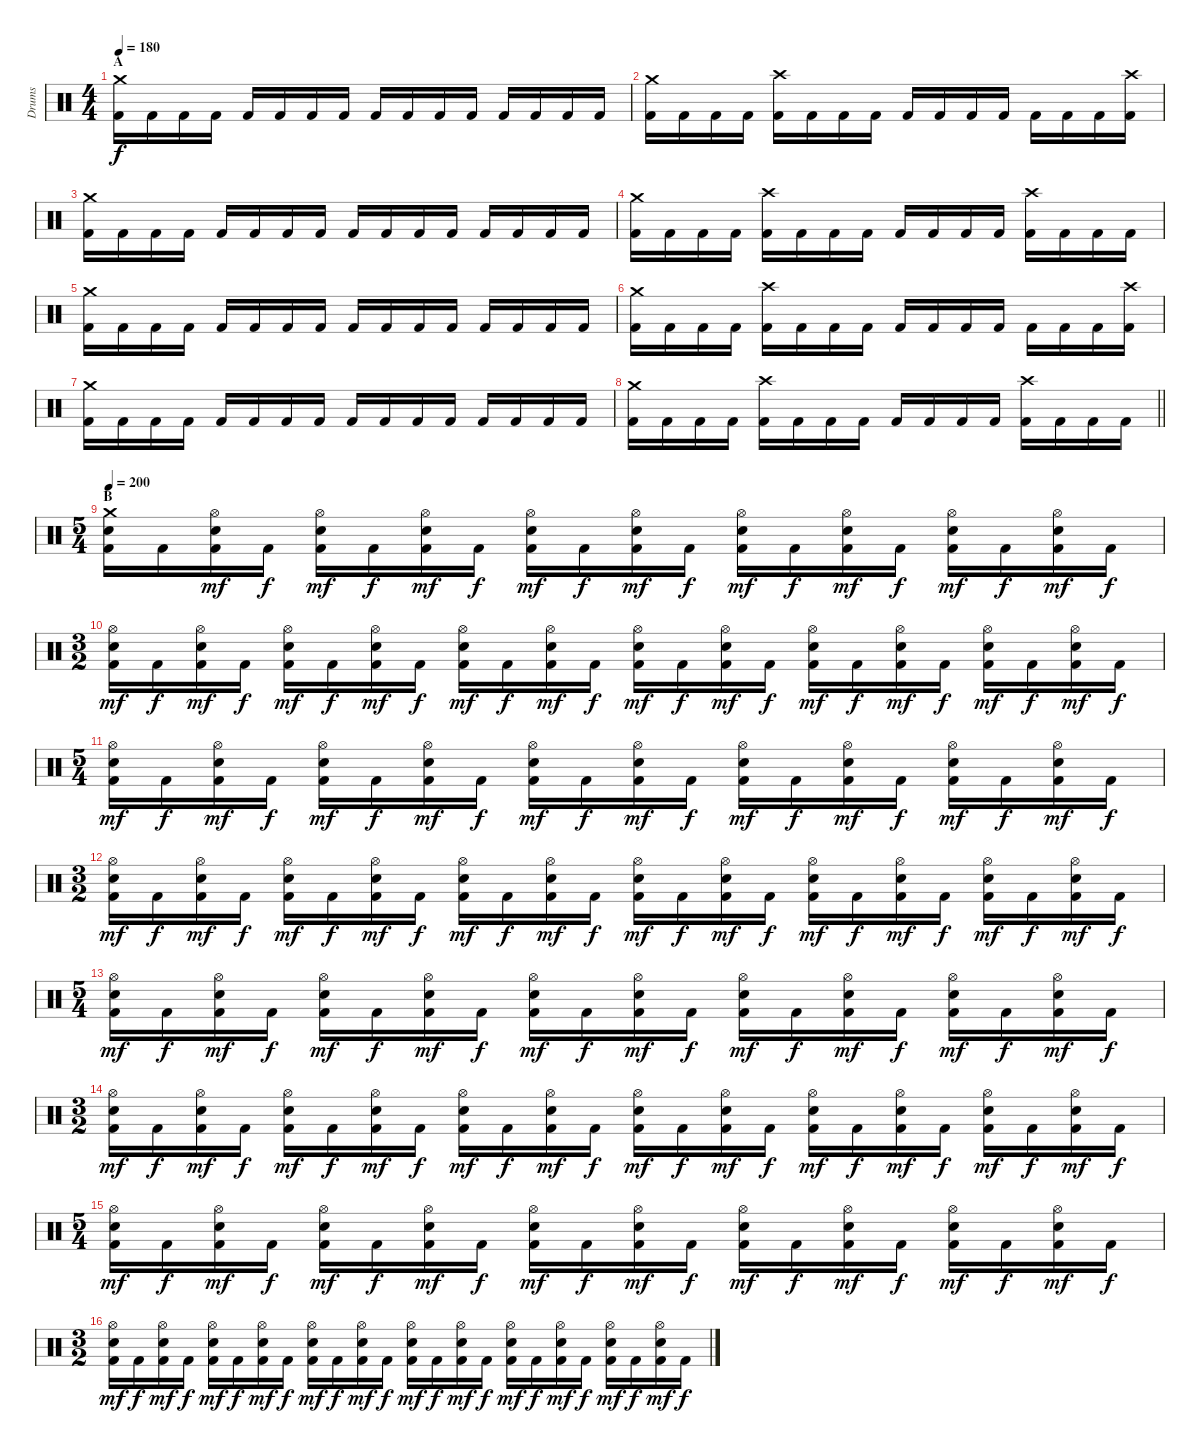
\track ("Drums" "Drums") {instrument percussion}
\staff {score}
\articulation defaults
\ts (4 4)
\section ("" "A")
\tempo 180
\clef neutral
\ks c
("Crash medium (hit)" "Kick (hit) 2").16{dy f} "Kick (hit) 2".16 "Kick (hit) 2".16 "Kick (hit) 2".16 "Kick (hit) 2".16 "Kick (hit) 2".16 "Kick (hit) 2".16 "Kick (hit) 2".16 "Kick (hit) 2".16 "Kick (hit) 2".16 "Kick (hit) 2".16 "Kick (hit) 2".16 "Kick (hit) 2".16 "Kick (hit) 2".16 "Kick (hit) 2".16 "Kick (hit) 2".16 |
("Crash medium (hit)" "Kick (hit) 2").16 "Kick (hit) 2".16 "Kick (hit) 2".16 "Kick (hit) 2".16 ("Crash high (hit)" "Kick (hit) 2").16 "Kick (hit) 2".16 "Kick (hit) 2".16 "Kick (hit) 2".16 "Kick (hit) 2".16 "Kick (hit) 2".16 "Kick (hit) 2".16 "Kick (hit) 2".16 "Kick (hit) 2".16 "Kick (hit) 2".16 "Kick (hit) 2".16 ("Crash high (hit)" "Kick (hit) 2").16 |
("Crash medium (hit)" "Kick (hit) 2").16 "Kick (hit) 2".16 "Kick (hit) 2".16 "Kick (hit) 2".16 "Kick (hit) 2".16 "Kick (hit) 2".16 "Kick (hit) 2".16 "Kick (hit) 2".16 "Kick (hit) 2".16 "Kick (hit) 2".16 "Kick (hit) 2".16 "Kick (hit) 2".16 "Kick (hit) 2".16 "Kick (hit) 2".16 "Kick (hit) 2".16 "Kick (hit) 2".16 |
("Crash medium (hit)" "Kick (hit) 2").16 "Kick (hit) 2".16 "Kick (hit) 2".16 "Kick (hit) 2".16 ("Crash high (hit)" "Kick (hit) 2").16 "Kick (hit) 2".16 "Kick (hit) 2".16 "Kick (hit) 2".16 "Kick (hit) 2".16 "Kick (hit) 2".16 "Kick (hit) 2".16 "Kick (hit) 2".16 ("Crash high (hit)" "Kick (hit) 2").16 "Kick (hit) 2".16 "Kick (hit) 2".16 "Kick (hit) 2".16 |
("Crash medium (hit)" "Kick (hit) 2").16 "Kick (hit) 2".16 "Kick (hit) 2".16 "Kick (hit) 2".16 "Kick (hit) 2".16 "Kick (hit) 2".16 "Kick (hit) 2".16 "Kick (hit) 2".16 "Kick (hit) 2".16 "Kick (hit) 2".16 "Kick (hit) 2".16 "Kick (hit) 2".16 "Kick (hit) 2".16 "Kick (hit) 2".16 "Kick (hit) 2".16 "Kick (hit) 2".16 |
("Crash medium (hit)" "Kick (hit) 2").16 "Kick (hit) 2".16 "Kick (hit) 2".16 "Kick (hit) 2".16 ("Crash high (hit)" "Kick (hit) 2").16 "Kick (hit) 2".16 "Kick (hit) 2".16 "Kick (hit) 2".16 "Kick (hit) 2".16 "Kick (hit) 2".16 "Kick (hit) 2".16 "Kick (hit) 2".16 "Kick (hit) 2".16 "Kick (hit) 2".16 "Kick (hit) 2".16 ("Crash high (hit)" "Kick (hit) 2").16 |
("Crash medium (hit)" "Kick (hit) 2").16 "Kick (hit) 2".16 "Kick (hit) 2".16 "Kick (hit) 2".16 "Kick (hit) 2".16 "Kick (hit) 2".16 "Kick (hit) 2".16 "Kick (hit) 2".16 "Kick (hit) 2".16 "Kick (hit) 2".16 "Kick (hit) 2".16 "Kick (hit) 2".16 "Kick (hit) 2".16 "Kick (hit) 2".16 "Kick (hit) 2".16 "Kick (hit) 2".16 |
\barLineRight lightlight
("Crash medium (hit)" "Kick (hit) 2").16 "Kick (hit) 2".16 "Kick (hit) 2".16 "Kick (hit) 2".16 ("Crash high (hit)" "Kick (hit) 2").16 "Kick (hit) 2".16 "Kick (hit) 2".16 "Kick (hit) 2".16 "Kick (hit) 2".16 "Kick (hit) 2".16 "Kick (hit) 2".16 "Kick (hit) 2".16 ("Crash high (hit)" "Kick (hit) 2").16 "Kick (hit) 2".16 "Kick (hit) 2".16 "Kick (hit) 2".16 |
\ts (5 4)
\section ("" "B")
\tempo 200
("Crash medium (hit)" "Electric Snare (hit)" "Kick (hit) 2").16 "Kick (hit) 2".16 ("Hi-Hat (open)" "Electric Snare (hit)" "Kick (hit) 2").16{dy mf} "Kick (hit) 2".16{dy f} ("Hi-Hat (open)" "Electric Snare (hit)" "Kick (hit) 2").16{dy mf} "Kick (hit) 2".16{dy f} ("Hi-Hat (open)" "Electric Snare (hit)" "Kick (hit) 2").16{dy mf} "Kick (hit) 2".16{dy f} ("Hi-Hat (open)" "Electric Snare (hit)" "Kick (hit) 2").16{dy mf} "Kick (hit) 2".16{dy f} ("Hi-Hat (open)" "Electric Snare (hit)" "Kick (hit) 2").16{dy mf} "Kick (hit) 2".16{dy f} ("Hi-Hat (open)" "Electric Snare (hit)" "Kick (hit) 2").16{dy mf} "Kick (hit) 2".16{dy f} ("Hi-Hat (open)" "Electric Snare (hit)" "Kick (hit) 2").16{dy mf} "Kick (hit) 2".16{dy f} ("Hi-Hat (open)" "Electric Snare (hit)" "Kick (hit) 2").16{dy mf} "Kick (hit) 2".16{dy f} ("Hi-Hat (open)" "Electric Snare (hit)" "Kick (hit) 2").16{dy mf} "Kick (hit) 2".16{dy f} |
\ts (3 2)
("Hi-Hat (open)" "Electric Snare (hit)" "Kick (hit) 2").16{dy mf} "Kick (hit) 2".16{dy f} ("Hi-Hat (open)" "Electric Snare (hit)" "Kick (hit) 2").16{dy mf} "Kick (hit) 2".16{dy f} ("Hi-Hat (open)" "Electric Snare (hit)" "Kick (hit) 2").16{dy mf} "Kick (hit) 2".16{dy f} ("Hi-Hat (open)" "Electric Snare (hit)" "Kick (hit) 2").16{dy mf} "Kick (hit) 2".16{dy f} ("Hi-Hat (open)" "Electric Snare (hit)" "Kick (hit) 2").16{dy mf} "Kick (hit) 2".16{dy f} ("Hi-Hat (open)" "Electric Snare (hit)" "Kick (hit) 2").16{dy mf} "Kick (hit) 2".16{dy f} ("Hi-Hat (open)" "Electric Snare (hit)" "Kick (hit) 2").16{dy mf} "Kick (hit) 2".16{dy f} ("Hi-Hat (open)" "Electric Snare (hit)" "Kick (hit) 2").16{dy mf} "Kick (hit) 2".16{dy f} ("Hi-Hat (open)" "Electric Snare (hit)" "Kick (hit) 2").16{dy mf} "Kick (hit) 2".16{dy f} ("Hi-Hat (open)" "Electric Snare (hit)" "Kick (hit) 2").16{dy mf} "Kick (hit) 2".16{dy f} ("Hi-Hat (open)" "Electric Snare (hit)" "Kick (hit) 2").16{dy mf} "Kick (hit) 2".16{dy f} ("Hi-Hat (open)" "Electric Snare (hit)" "Kick (hit) 2").16{dy mf} "Kick (hit) 2".16{dy f} |
\ts (5 4)
("Hi-Hat (open)" "Electric Snare (hit)" "Kick (hit) 2").16{dy mf} "Kick (hit) 2".16{dy f} ("Hi-Hat (open)" "Electric Snare (hit)" "Kick (hit) 2").16{dy mf} "Kick (hit) 2".16{dy f} ("Hi-Hat (open)" "Electric Snare (hit)" "Kick (hit) 2").16{dy mf} "Kick (hit) 2".16{dy f} ("Hi-Hat (open)" "Electric Snare (hit)" "Kick (hit) 2").16{dy mf} "Kick (hit) 2".16{dy f} ("Hi-Hat (open)" "Electric Snare (hit)" "Kick (hit) 2").16{dy mf} "Kick (hit) 2".16{dy f} ("Hi-Hat (open)" "Electric Snare (hit)" "Kick (hit) 2").16{dy mf} "Kick (hit) 2".16{dy f} ("Hi-Hat (open)" "Electric Snare (hit)" "Kick (hit) 2").16{dy mf} "Kick (hit) 2".16{dy f} ("Hi-Hat (open)" "Electric Snare (hit)" "Kick (hit) 2").16{dy mf} "Kick (hit) 2".16{dy f} ("Hi-Hat (open)" "Electric Snare (hit)" "Kick (hit) 2").16{dy mf} "Kick (hit) 2".16{dy f} ("Hi-Hat (open)" "Electric Snare (hit)" "Kick (hit) 2").16{dy mf} "Kick (hit) 2".16{dy f} |
\ts (3 2)
("Hi-Hat (open)" "Electric Snare (hit)" "Kick (hit) 2").16{dy mf} "Kick (hit) 2".16{dy f} ("Hi-Hat (open)" "Electric Snare (hit)" "Kick (hit) 2").16{dy mf} "Kick (hit) 2".16{dy f} ("Hi-Hat (open)" "Electric Snare (hit)" "Kick (hit) 2").16{dy mf} "Kick (hit) 2".16{dy f} ("Hi-Hat (open)" "Electric Snare (hit)" "Kick (hit) 2").16{dy mf} "Kick (hit) 2".16{dy f} ("Hi-Hat (open)" "Electric Snare (hit)" "Kick (hit) 2").16{dy mf} "Kick (hit) 2".16{dy f} ("Hi-Hat (open)" "Electric Snare (hit)" "Kick (hit) 2").16{dy mf} "Kick (hit) 2".16{dy f} ("Hi-Hat (open)" "Electric Snare (hit)" "Kick (hit) 2").16{dy mf} "Kick (hit) 2".16{dy f} ("Hi-Hat (open)" "Electric Snare (hit)" "Kick (hit) 2").16{dy mf} "Kick (hit) 2".16{dy f} ("Hi-Hat (open)" "Electric Snare (hit)" "Kick (hit) 2").16{dy mf} "Kick (hit) 2".16{dy f} ("Hi-Hat (open)" "Electric Snare (hit)" "Kick (hit) 2").16{dy mf} "Kick (hit) 2".16{dy f} ("Hi-Hat (open)" "Electric Snare (hit)" "Kick (hit) 2").16{dy mf} "Kick (hit) 2".16{dy f} ("Hi-Hat (open)" "Electric Snare (hit)" "Kick (hit) 2").16{dy mf} "Kick (hit) 2".16{dy f} |
\ts (5 4)
("Hi-Hat (open)" "Electric Snare (hit)" "Kick (hit) 2").16{dy mf} "Kick (hit) 2".16{dy f} ("Hi-Hat (open)" "Electric Snare (hit)" "Kick (hit) 2").16{dy mf} "Kick (hit) 2".16{dy f} ("Hi-Hat (open)" "Electric Snare (hit)" "Kick (hit) 2").16{dy mf} "Kick (hit) 2".16{dy f} ("Hi-Hat (open)" "Electric Snare (hit)" "Kick (hit) 2").16{dy mf} "Kick (hit) 2".16{dy f} ("Hi-Hat (open)" "Electric Snare (hit)" "Kick (hit) 2").16{dy mf} "Kick (hit) 2".16{dy f} ("Hi-Hat (open)" "Electric Snare (hit)" "Kick (hit) 2").16{dy mf} "Kick (hit) 2".16{dy f} ("Hi-Hat (open)" "Electric Snare (hit)" "Kick (hit) 2").16{dy mf} "Kick (hit) 2".16{dy f} ("Hi-Hat (open)" "Electric Snare (hit)" "Kick (hit) 2").16{dy mf} "Kick (hit) 2".16{dy f} ("Hi-Hat (open)" "Electric Snare (hit)" "Kick (hit) 2").16{dy mf} "Kick (hit) 2".16{dy f} ("Hi-Hat (open)" "Electric Snare (hit)" "Kick (hit) 2").16{dy mf} "Kick (hit) 2".16{dy f} |
\ts (3 2)
("Hi-Hat (open)" "Electric Snare (hit)" "Kick (hit) 2").16{dy mf} "Kick (hit) 2".16{dy f} ("Hi-Hat (open)" "Electric Snare (hit)" "Kick (hit) 2").16{dy mf} "Kick (hit) 2".16{dy f} ("Hi-Hat (open)" "Electric Snare (hit)" "Kick (hit) 2").16{dy mf} "Kick (hit) 2".16{dy f} ("Hi-Hat (open)" "Electric Snare (hit)" "Kick (hit) 2").16{dy mf} "Kick (hit) 2".16{dy f} ("Hi-Hat (open)" "Electric Snare (hit)" "Kick (hit) 2").16{dy mf} "Kick (hit) 2".16{dy f} ("Hi-Hat (open)" "Electric Snare (hit)" "Kick (hit) 2").16{dy mf} "Kick (hit) 2".16{dy f} ("Hi-Hat (open)" "Electric Snare (hit)" "Kick (hit) 2").16{dy mf} "Kick (hit) 2".16{dy f} ("Hi-Hat (open)" "Electric Snare (hit)" "Kick (hit) 2").16{dy mf} "Kick (hit) 2".16{dy f} ("Hi-Hat (open)" "Electric Snare (hit)" "Kick (hit) 2").16{dy mf} "Kick (hit) 2".16{dy f} ("Hi-Hat (open)" "Electric Snare (hit)" "Kick (hit) 2").16{dy mf} "Kick (hit) 2".16{dy f} ("Hi-Hat (open)" "Electric Snare (hit)" "Kick (hit) 2").16{dy mf} "Kick (hit) 2".16{dy f} ("Hi-Hat (open)" "Electric Snare (hit)" "Kick (hit) 2").16{dy mf} "Kick (hit) 2".16{dy f} |
\ts (5 4)
("Hi-Hat (open)" "Electric Snare (hit)" "Kick (hit) 2").16{dy mf} "Kick (hit) 2".16{dy f} ("Hi-Hat (open)" "Electric Snare (hit)" "Kick (hit) 2").16{dy mf} "Kick (hit) 2".16{dy f} ("Hi-Hat (open)" "Electric Snare (hit)" "Kick (hit) 2").16{dy mf} "Kick (hit) 2".16{dy f} ("Hi-Hat (open)" "Electric Snare (hit)" "Kick (hit) 2").16{dy mf} "Kick (hit) 2".16{dy f} ("Hi-Hat (open)" "Electric Snare (hit)" "Kick (hit) 2").16{dy mf} "Kick (hit) 2".16{dy f} ("Hi-Hat (open)" "Electric Snare (hit)" "Kick (hit) 2").16{dy mf} "Kick (hit) 2".16{dy f} ("Hi-Hat (open)" "Electric Snare (hit)" "Kick (hit) 2").16{dy mf} "Kick (hit) 2".16{dy f} ("Hi-Hat (open)" "Electric Snare (hit)" "Kick (hit) 2").16{dy mf} "Kick (hit) 2".16{dy f} ("Hi-Hat (open)" "Electric Snare (hit)" "Kick (hit) 2").16{dy mf} "Kick (hit) 2".16{dy f} ("Hi-Hat (open)" "Electric Snare (hit)" "Kick (hit) 2").16{dy mf} "Kick (hit) 2".16{dy f} |
\ts (3 2)
("Hi-Hat (open)" "Electric Snare (hit)" "Kick (hit) 2").16{dy mf} "Kick (hit) 2".16{dy f} ("Hi-Hat (open)" "Electric Snare (hit)" "Kick (hit) 2").16{dy mf} "Kick (hit) 2".16{dy f} ("Hi-Hat (open)" "Electric Snare (hit)" "Kick (hit) 2").16{dy mf} "Kick (hit) 2".16{dy f} ("Hi-Hat (open)" "Electric Snare (hit)" "Kick (hit) 2").16{dy mf} "Kick (hit) 2".16{dy f} ("Hi-Hat (open)" "Electric Snare (hit)" "Kick (hit) 2").16{dy mf} "Kick (hit) 2".16{dy f} ("Hi-Hat (open)" "Electric Snare (hit)" "Kick (hit) 2").16{dy mf} "Kick (hit) 2".16{dy f} ("Hi-Hat (open)" "Electric Snare (hit)" "Kick (hit) 2").16{dy mf} "Kick (hit) 2".16{dy f} ("Hi-Hat (open)" "Electric Snare (hit)" "Kick (hit) 2").16{dy mf} "Kick (hit) 2".16{dy f} ("Hi-Hat (open)" "Electric Snare (hit)" "Kick (hit) 2").16{dy mf} "Kick (hit) 2".16{dy f} ("Hi-Hat (open)" "Electric Snare (hit)" "Kick (hit) 2").16{dy mf} "Kick (hit) 2".16{dy f} ("Hi-Hat (open)" "Electric Snare (hit)" "Kick (hit) 2").16{dy mf} "Kick (hit) 2".16{dy f} ("Hi-Hat (open)" "Electric Snare (hit)" "Kick (hit) 2").16{dy mf} "Kick (hit) 2".16{dy f}
